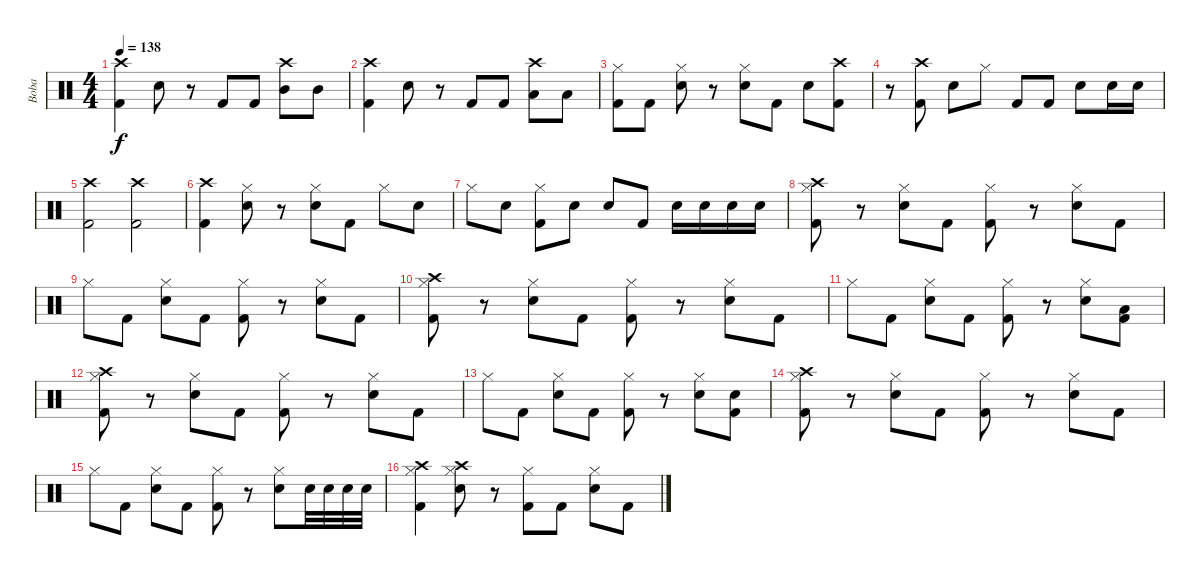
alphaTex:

\track ("Boba" "Boba") {instrument percussion}
\staff {score}
\articulation defaults
\ts (4 4)
\tempo 138
\clef neutral
\ks c
("Crash high (hit)" "Kick (hit) 2").4{dy f} "Electric Snare (hit)".8 r.8 "Kick (hit) 2".8 "Kick (hit) 2".8 ("Crash high (hit)" "Mid Tom (hit)").8 "Mid Tom (hit)".8 |
("Crash high (hit)" "Kick (hit) 2").4 "Electric Snare (hit)".8 r.8 "Kick (hit) 2".8 "Kick (hit) 2".8 ("Crash high (hit)" "Low Tom (hit)").8 "Low Tom (hit)".8 |
("Hi-Hat (closed)" "Kick (hit) 2").8 "Kick (hit) 2".8 ("Hi-Hat (closed)" "Electric Snare (hit)").8 r.8 ("Hi-Hat (closed)" "Electric Snare (hit)").8 "Kick (hit) 2".8 "Electric Snare (hit)".8 ("Crash high (hit)" "Kick (hit) 2").8 |
r.8 ("Crash high (hit)" "Kick (hit) 2").8 "Electric Snare (hit)".8 "Hi-Hat (closed)".8 "Kick (hit) 2".8 "Kick (hit) 2".8 "Electric Snare (hit)".8 "Electric Snare (hit)".16 "Electric Snare (hit)".16 |
("Crash high (hit)" "Kick (hit) 2").2 ("Crash high (hit)" "Kick (hit) 2").2 |
("Crash high (hit)" "Kick (hit) 2").4 ("Hi-Hat (closed)" "Electric Snare (hit)").8 r.8 ("Hi-Hat (closed)" "Electric Snare (hit)").8 "Kick (hit) 2".8 "Hi-Hat (closed)".8 "Electric Snare (hit)".8 |
"Hi-Hat (closed)".8 "Electric Snare (hit)".8 ("Hi-Hat (closed)" "Kick (hit) 2").8 "Electric Snare (hit)".8 "Electric Snare (hit)".8 "Kick (hit) 2".8 "Electric Snare (hit)".16 "Electric Snare (hit)".16 "Electric Snare (hit)".16 "Electric Snare (hit)".16 |
("Crash high (hit)" "Hi-Hat (closed)" "Kick (hit) 2").8 r.8 ("Hi-Hat (closed)" "Electric Snare (hit)").8 "Kick (hit) 2".8 ("Hi-Hat (closed)" "Kick (hit) 2").8 r.8 ("Hi-Hat (closed)" "Electric Snare (hit)").8 "Kick (hit) 2".8 |
"Hi-Hat (closed)".8 "Kick (hit) 2".8 ("Hi-Hat (closed)" "Electric Snare (hit)").8 "Kick (hit) 2".8 ("Hi-Hat (closed)" "Kick (hit) 2").8 r.8 ("Hi-Hat (closed)" "Electric Snare (hit)").8 "Kick (hit) 2".8 |
("Crash high (hit)" "Hi-Hat (closed)" "Kick (hit) 2").8 r.8 ("Hi-Hat (closed)" "Electric Snare (hit)").8 "Kick (hit) 2".8 ("Hi-Hat (closed)" "Kick (hit) 2").8 r.8 ("Hi-Hat (closed)" "Electric Snare (hit)").8 "Kick (hit) 2".8 |
"Hi-Hat (closed)".8 "Kick (hit) 2".8 ("Hi-Hat (closed)" "Electric Snare (hit)").8 "Kick (hit) 2".8 ("Hi-Hat (closed)" "Kick (hit) 2").8 r.8 ("Hi-Hat (closed)" "Electric Snare (hit)").8 ("Low Tom (hit)" "Kick (hit) 2").8 |
("Crash high (hit)" "Hi-Hat (closed)" "Kick (hit) 2").8 r.8 ("Hi-Hat (closed)" "Electric Snare (hit)").8 "Kick (hit) 2".8 ("Hi-Hat (closed)" "Kick (hit) 2").8 r.8 ("Hi-Hat (closed)" "Electric Snare (hit)").8 "Kick (hit) 2".8 |
"Hi-Hat (closed)".8 "Kick (hit) 2".8 ("Hi-Hat (closed)" "Electric Snare (hit)").8 "Kick (hit) 2".8 ("Hi-Hat (closed)" "Kick (hit) 2").8 r.8 ("Hi-Hat (closed)" "Electric Snare (hit)").8 ("Electric Snare (hit)" "Kick (hit) 2").8 |
("Crash high (hit)" "Hi-Hat (closed)" "Kick (hit) 2").8 r.8 ("Hi-Hat (closed)" "Electric Snare (hit)").8 "Kick (hit) 2".8 ("Hi-Hat (closed)" "Kick (hit) 2").8 r.8 ("Hi-Hat (closed)" "Electric Snare (hit)").8 "Kick (hit) 2".8 |
"Hi-Hat (closed)".8 "Kick (hit) 2".8 ("Hi-Hat (closed)" "Electric Snare (hit)").8 "Kick (hit) 2".8 ("Hi-Hat (closed)" "Kick (hit) 2").8 r.8 ("Hi-Hat (closed)" "Electric Snare (hit)").8 "Electric Snare (hit)".32 "Electric Snare (hit)".32 "Electric Snare (hit)".32 "Electric Snare (hit)".32 |
("Crash high (hit)" "Hi-Hat (closed)" "Kick (hit) 2").4 ("Crash high (hit)" "Hi-Hat (closed)" "Electric Snare (hit)").8 r.8 ("Hi-Hat (closed)" "Kick (hit) 2").8 "Kick (hit) 2".8 ("Hi-Hat (closed)" "Electric Snare (hit)").8 "Kick (hit) 2".8
